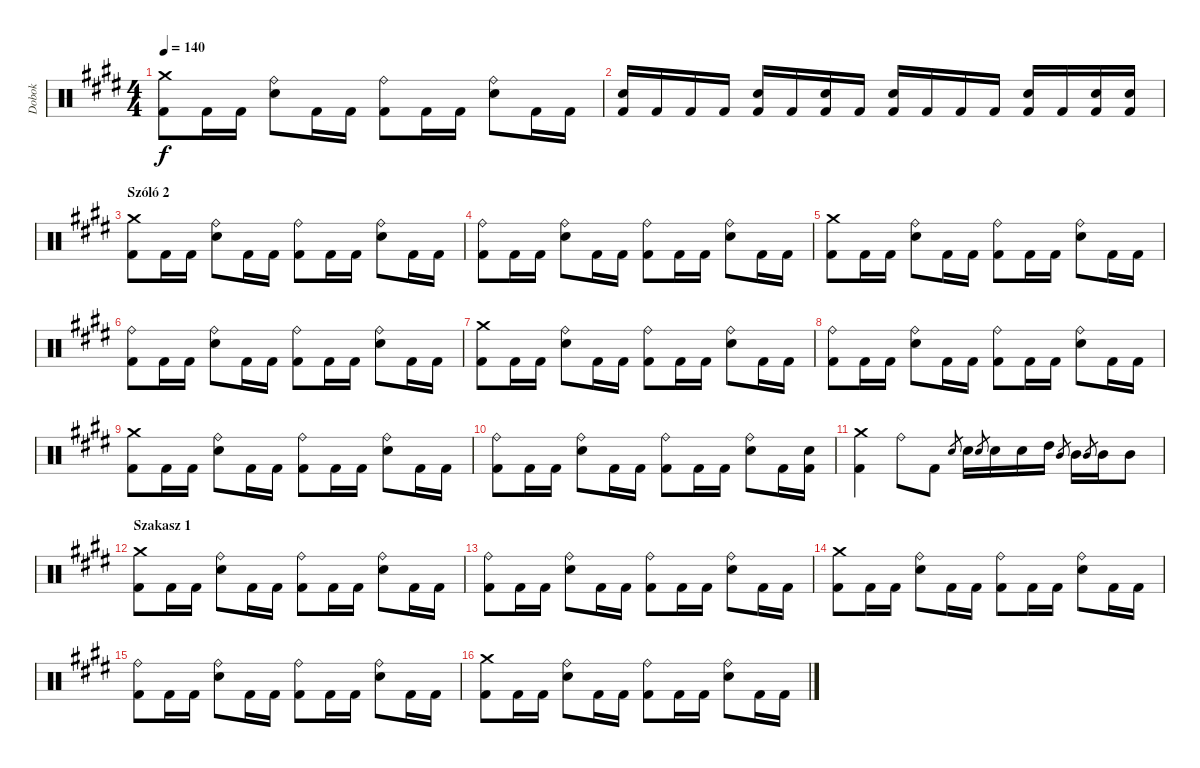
\track ("Dobok" "Dobok") {instrument percussion}
\staff {score}
\articulation defaults
\ts (4 4)
\tempo 140
\clef neutral
\ks c#minor
("Crash medium (hit)" "Kick (hit) 2").8{dy f} "Kick (hit) 2".16 "Kick (hit) 2".16 ("Ride (bell)" "Snare (hit) 2").8 "Kick (hit) 2".16 "Kick (hit) 2".16 ("Ride (bell)" "Kick (hit) 2").8 "Kick (hit) 2".16 "Kick (hit) 2".16 ("Ride (bell)" "Snare (hit) 2").8 "Kick (hit) 2".16 "Kick (hit) 2".16 |
("Snare (hit) 2" "Kick (hit) 2").16 "Kick (hit) 2".16 "Kick (hit) 2".16 "Kick (hit) 2".16 ("Snare (hit) 2" "Kick (hit) 2").16 "Kick (hit) 2".16 ("Snare (hit) 2" "Kick (hit) 2").16 "Kick (hit) 2".16 ("Snare (hit) 2" "Kick (hit) 2").16 "Kick (hit) 2".16 "Kick (hit) 2".16 "Kick (hit) 2".16 ("Snare (hit) 2" "Kick (hit) 2").16 "Kick (hit) 2".16 ("Snare (hit) 2" "Kick (hit) 2").16 ("Snare (hit) 2" "Kick (hit) 2").16 |
\section ("" "Szóló 2")
("Crash medium (hit)" "Kick (hit) 2").8 "Kick (hit) 2".16 "Kick (hit) 2".16 ("Ride (bell)" "Snare (hit) 2").8 "Kick (hit) 2".16 "Kick (hit) 2".16 ("Ride (bell)" "Kick (hit) 2").8 "Kick (hit) 2".16 "Kick (hit) 2".16 ("Ride (bell)" "Snare (hit) 2").8 "Kick (hit) 2".16 "Kick (hit) 2".16 |
("Ride (bell)" "Kick (hit) 2").8 "Kick (hit) 2".16 "Kick (hit) 2".16 ("Ride (bell)" "Snare (hit) 2").8 "Kick (hit) 2".16 "Kick (hit) 2".16 ("Ride (bell)" "Kick (hit) 2").8 "Kick (hit) 2".16 "Kick (hit) 2".16 ("Ride (bell)" "Snare (hit) 2").8 "Kick (hit) 2".16 "Kick (hit) 2".16 |
("Crash medium (hit)" "Kick (hit) 2").8 "Kick (hit) 2".16 "Kick (hit) 2".16 ("Ride (bell)" "Snare (hit) 2").8 "Kick (hit) 2".16 "Kick (hit) 2".16 ("Ride (bell)" "Kick (hit) 2").8 "Kick (hit) 2".16 "Kick (hit) 2".16 ("Ride (bell)" "Snare (hit) 2").8 "Kick (hit) 2".16 "Kick (hit) 2".16 |
("Ride (bell)" "Kick (hit) 2").8 "Kick (hit) 2".16 "Kick (hit) 2".16 ("Ride (bell)" "Snare (hit) 2").8 "Kick (hit) 2".16 "Kick (hit) 2".16 ("Ride (bell)" "Kick (hit) 2").8 "Kick (hit) 2".16 "Kick (hit) 2".16 ("Ride (bell)" "Snare (hit) 2").8 "Kick (hit) 2".16 "Kick (hit) 2".16 |
("Crash medium (hit)" "Kick (hit) 2").8 "Kick (hit) 2".16 "Kick (hit) 2".16 ("Ride (bell)" "Snare (hit) 2").8 "Kick (hit) 2".16 "Kick (hit) 2".16 ("Ride (bell)" "Kick (hit) 2").8 "Kick (hit) 2".16 "Kick (hit) 2".16 ("Ride (bell)" "Snare (hit) 2").8 "Kick (hit) 2".16 "Kick (hit) 2".16 |
("Ride (bell)" "Kick (hit) 2").8 "Kick (hit) 2".16 "Kick (hit) 2".16 ("Ride (bell)" "Snare (hit) 2").8 "Kick (hit) 2".16 "Kick (hit) 2".16 ("Ride (bell)" "Kick (hit) 2").8 "Kick (hit) 2".16 "Kick (hit) 2".16 ("Ride (bell)" "Snare (hit) 2").8 "Kick (hit) 2".16 "Kick (hit) 2".16 |
("Crash medium (hit)" "Kick (hit) 2").8 "Kick (hit) 2".16 "Kick (hit) 2".16 ("Ride (bell)" "Snare (hit) 2").8 "Kick (hit) 2".16 "Kick (hit) 2".16 ("Ride (bell)" "Kick (hit) 2").8 "Kick (hit) 2".16 "Kick (hit) 2".16 ("Ride (bell)" "Snare (hit) 2").8 "Kick (hit) 2".16 "Kick (hit) 2".16 |
("Ride (bell)" "Kick (hit) 2").8 "Kick (hit) 2".16 "Kick (hit) 2".16 ("Ride (bell)" "Snare (hit) 2").8 "Kick (hit) 2".16 "Kick (hit) 2".16 ("Ride (bell)" "Kick (hit) 2").8 "Kick (hit) 2".16 "Kick (hit) 2".16 ("Ride (bell)" "Snare (hit) 2").8 "Kick (hit) 2".16 ("Snare (hit) 2" "Kick (hit) 2").16 |
("Crash medium (hit)" "Kick (hit) 2").4 "Ride (bell)".8 "Kick (hit) 2".8 "Snare (hit) 2".8{gr} "Snare (hit) 2".16 "Snare (hit) 2".8{gr} "Snare (hit) 2".16 "Snare (hit) 2".16 "High Tom (hit)".16 "Mid Tom (hit)".8{gr} "Mid Tom (hit)".16 "Mid Tom (hit)".8{gr} "Mid Tom (hit)".16 "Mid Tom (hit)".8 |
\section ("" "Szakasz 1")
("Crash medium (hit)" "Kick (hit) 2").8 "Kick (hit) 2".16 "Kick (hit) 2".16 ("Ride (bell)" "Snare (hit) 2").8 "Kick (hit) 2".16 "Kick (hit) 2".16 ("Ride (bell)" "Kick (hit) 2").8 "Kick (hit) 2".16 "Kick (hit) 2".16 ("Ride (bell)" "Snare (hit) 2").8 "Kick (hit) 2".16 "Kick (hit) 2".16 |
("Ride (bell)" "Kick (hit) 2").8 "Kick (hit) 2".16 "Kick (hit) 2".16 ("Ride (bell)" "Snare (hit) 2").8 "Kick (hit) 2".16 "Kick (hit) 2".16 ("Ride (bell)" "Kick (hit) 2").8 "Kick (hit) 2".16 "Kick (hit) 2".16 ("Ride (bell)" "Snare (hit) 2").8 "Kick (hit) 2".16 "Kick (hit) 2".16 |
("Crash medium (hit)" "Kick (hit) 2").8 "Kick (hit) 2".16 "Kick (hit) 2".16 ("Ride (bell)" "Snare (hit) 2").8 "Kick (hit) 2".16 "Kick (hit) 2".16 ("Ride (bell)" "Kick (hit) 2").8 "Kick (hit) 2".16 "Kick (hit) 2".16 ("Ride (bell)" "Snare (hit) 2").8 "Kick (hit) 2".16 "Kick (hit) 2".16 |
("Ride (bell)" "Kick (hit) 2").8 "Kick (hit) 2".16 "Kick (hit) 2".16 ("Ride (bell)" "Snare (hit) 2").8 "Kick (hit) 2".16 "Kick (hit) 2".16 ("Ride (bell)" "Kick (hit) 2").8 "Kick (hit) 2".16 "Kick (hit) 2".16 ("Ride (bell)" "Snare (hit) 2").8 "Kick (hit) 2".16 "Kick (hit) 2".16 |
("Crash medium (hit)" "Kick (hit) 2").8 "Kick (hit) 2".16 "Kick (hit) 2".16 ("Ride (bell)" "Snare (hit) 2").8 "Kick (hit) 2".16 "Kick (hit) 2".16 ("Ride (bell)" "Kick (hit) 2").8 "Kick (hit) 2".16 "Kick (hit) 2".16 ("Ride (bell)" "Snare (hit) 2").8 "Kick (hit) 2".16 "Kick (hit) 2".16
